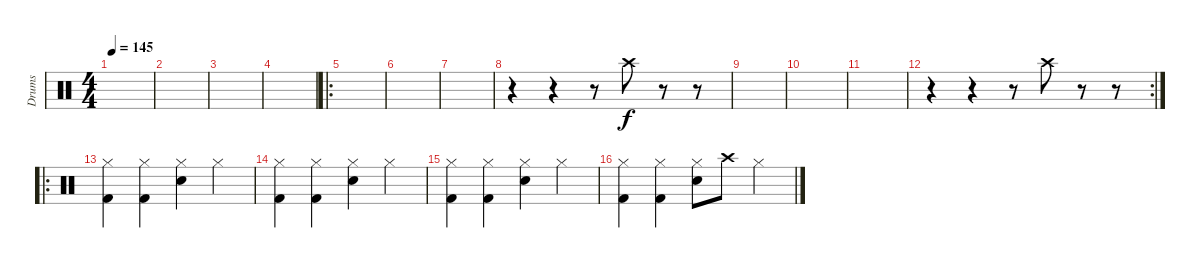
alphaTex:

\track ("Drums" "Drums") {instrument percussion}
\staff {score}
\articulation defaults
\ts (4 4)
\tempo 145
\clef neutral
\ks c
|
|
|
|
\ro
|
|
|
r.4 r.4 r.8 "Crash high (hit)".8 r.8 r.8 |
|
|
|
\rc 2
r.4 r.4 r.8 "Crash high (hit)".8 r.8 r.8 |
\ro
("Hi-Hat (closed)" "Kick (hit) 2").4 ("Hi-Hat (closed)" "Kick (hit) 2").4 ("Hi-Hat (closed)" "Electric Snare (hit)").4 "Hi-Hat (closed)".4 |
("Hi-Hat (closed)" "Kick (hit) 2").4 ("Hi-Hat (closed)" "Kick (hit) 2").4 ("Hi-Hat (closed)" "Electric Snare (hit)").4 "Hi-Hat (closed)".4 |
("Hi-Hat (closed)" "Kick (hit) 2").4 ("Hi-Hat (closed)" "Kick (hit) 2").4 ("Hi-Hat (closed)" "Electric Snare (hit)").4 "Hi-Hat (closed)".4 |
("Hi-Hat (closed)" "Kick (hit) 2").4 ("Hi-Hat (closed)" "Kick (hit) 2").4 ("Hi-Hat (closed)" "Electric Snare (hit)").8 "Crash high (hit)".8 "Hi-Hat (closed)".4
